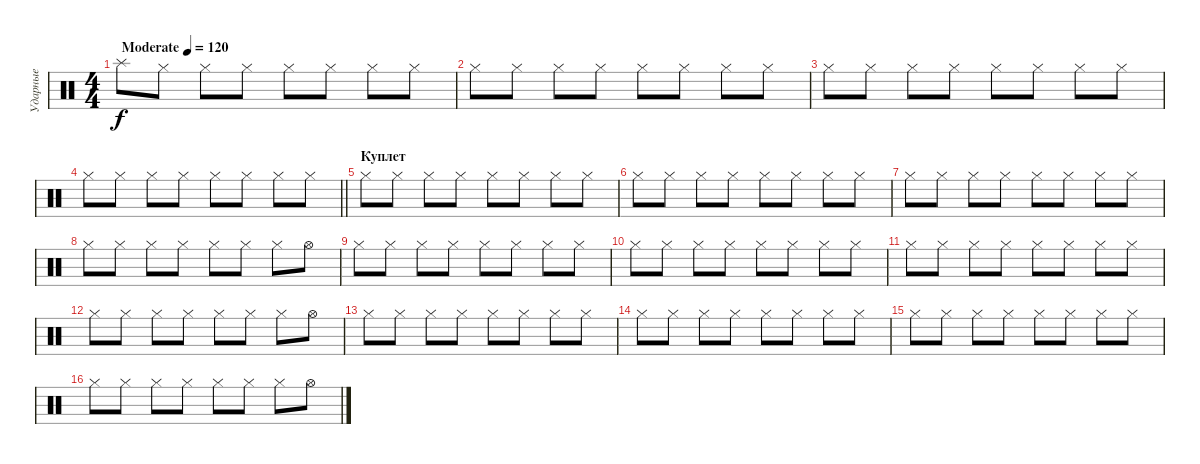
\track ("Ударные" "Ударные") {instrument percussion}
\staff {score}
\articulation defaults
\ts (4 4)
\tempo (120 "Moderate")
\clef neutral
\ks c "Splash (hit)".8{dy f} "Hi-Hat (closed)".8 "Hi-Hat (closed)".8 "Hi-Hat (closed)".8 "Hi-Hat (closed)".8 "Hi-Hat (closed)".8 "Hi-Hat (closed)".8 "Hi-Hat (closed)".8
|
"Hi-Hat (closed)".8 "Hi-Hat (closed)".8 "Hi-Hat (closed)".8 "Hi-Hat (closed)".8 "Hi-Hat (closed)".8 "Hi-Hat (closed)".8 "Hi-Hat (closed)".8 "Hi-Hat (closed)".8 |
"Hi-Hat (closed)".8 "Hi-Hat (closed)".8 "Hi-Hat (closed)".8 "Hi-Hat (closed)".8 "Hi-Hat (closed)".8 "Hi-Hat (closed)".8 "Hi-Hat (closed)".8 "Hi-Hat (closed)".8 |
\barLineRight lightlight "Hi-Hat (closed)".8 "Hi-Hat (closed)".8 "Hi-Hat (closed)".8 "Hi-Hat (closed)".8 "Hi-Hat (closed)".8 "Hi-Hat (closed)".8 "Hi-Hat (closed)".8 "Hi-Hat (closed)".8
|
\section ("" "Куплет")
"Hi-Hat (closed)".8 "Hi-Hat (closed)".8 "Hi-Hat (closed)".8 "Hi-Hat (closed)".8 "Hi-Hat (closed)".8 "Hi-Hat (closed)".8 "Hi-Hat (closed)".8 "Hi-Hat (closed)".8 |
"Hi-Hat (closed)".8 "Hi-Hat (closed)".8 "Hi-Hat (closed)".8 "Hi-Hat (closed)".8 "Hi-Hat (closed)".8 "Hi-Hat (closed)".8 "Hi-Hat (closed)".8 "Hi-Hat (closed)".8 |
"Hi-Hat (closed)".8 "Hi-Hat (closed)".8 "Hi-Hat (closed)".8 "Hi-Hat (closed)".8 "Hi-Hat (closed)".8 "Hi-Hat (closed)".8 "Hi-Hat (closed)".8 "Hi-Hat (closed)".8 |
"Hi-Hat (closed)".8 "Hi-Hat (closed)".8 "Hi-Hat (closed)".8 "Hi-Hat (closed)".8 "Hi-Hat (closed)".8 "Hi-Hat (closed)".8 "Hi-Hat (closed)".8 "Hi-Hat (open)".8 |
"Hi-Hat (closed)".8 "Hi-Hat (closed)".8 "Hi-Hat (closed)".8 "Hi-Hat (closed)".8 "Hi-Hat (closed)".8 "Hi-Hat (closed)".8 "Hi-Hat (closed)".8 "Hi-Hat (closed)".8 |
"Hi-Hat (closed)".8 "Hi-Hat (closed)".8 "Hi-Hat (closed)".8 "Hi-Hat (closed)".8 "Hi-Hat (closed)".8 "Hi-Hat (closed)".8 "Hi-Hat (closed)".8 "Hi-Hat (closed)".8 |
"Hi-Hat (closed)".8 "Hi-Hat (closed)".8 "Hi-Hat (closed)".8 "Hi-Hat (closed)".8 "Hi-Hat (closed)".8 "Hi-Hat (closed)".8 "Hi-Hat (closed)".8 "Hi-Hat (closed)".8 |
"Hi-Hat (closed)".8 "Hi-Hat (closed)".8 "Hi-Hat (closed)".8 "Hi-Hat (closed)".8 "Hi-Hat (closed)".8 "Hi-Hat (closed)".8 "Hi-Hat (closed)".8 "Hi-Hat (open)".8 |
"Hi-Hat (closed)".8 "Hi-Hat (closed)".8 "Hi-Hat (closed)".8 "Hi-Hat (closed)".8 "Hi-Hat (closed)".8 "Hi-Hat (closed)".8 "Hi-Hat (closed)".8 "Hi-Hat (closed)".8 |
"Hi-Hat (closed)".8 "Hi-Hat (closed)".8 "Hi-Hat (closed)".8 "Hi-Hat (closed)".8 "Hi-Hat (closed)".8 "Hi-Hat (closed)".8 "Hi-Hat (closed)".8 "Hi-Hat (closed)".8 |
"Hi-Hat (closed)".8 "Hi-Hat (closed)".8 "Hi-Hat (closed)".8 "Hi-Hat (closed)".8 "Hi-Hat (closed)".8 "Hi-Hat (closed)".8 "Hi-Hat (closed)".8 "Hi-Hat (closed)".8 |
"Hi-Hat (closed)".8 "Hi-Hat (closed)".8 "Hi-Hat (closed)".8 "Hi-Hat (closed)".8 "Hi-Hat (closed)".8 "Hi-Hat (closed)".8 "Hi-Hat (closed)".8 "Hi-Hat (open)".8
